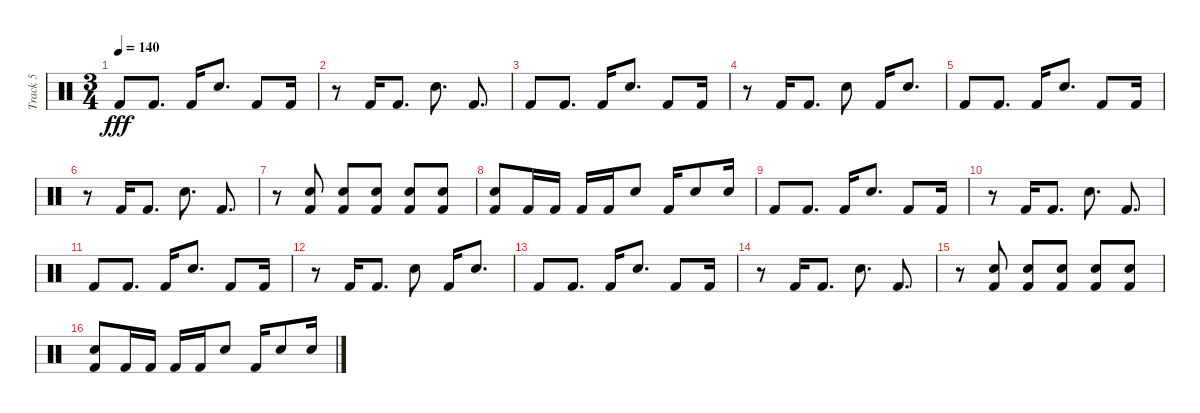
\track ("Track 5" "Track 5") {instrument percussion}
\staff {score}
\articulation defaults
\ts (3 4)
\tempo 140
\clef neutral
\ks c "Kick (hit) 2".8{dy fff} "Kick (hit) 2".8{d} "Kick (hit) 2".16 "Electric Snare (hit)".8{d} "Kick (hit) 2".8 "Kick (hit) 2".16
|
r.8 "Kick (hit) 2".16 "Kick (hit) 2".8{d} "Electric Snare (hit)".8{d} "Kick (hit) 2".8{d} |
"Kick (hit) 2".8 "Kick (hit) 2".8{d} "Kick (hit) 2".16 "Electric Snare (hit)".8{d} "Kick (hit) 2".8 "Kick (hit) 2".16 |
r.8 "Kick (hit) 2".16 "Kick (hit) 2".8{d} "Electric Snare (hit)".8 "Kick (hit) 2".16 "Electric Snare (hit)".8{d} |
"Kick (hit) 2".8 "Kick (hit) 2".8{d} "Kick (hit) 2".16 "Electric Snare (hit)".8{d} "Kick (hit) 2".8 "Kick (hit) 2".16 |
r.8 "Kick (hit) 2".16 "Kick (hit) 2".8{d} "Electric Snare (hit)".8{d} "Kick (hit) 2".8{d} |
r.8 ("Electric Snare (hit)" "Kick (hit) 2").8 ("Electric Snare (hit)" "Kick (hit) 2").8 ("Electric Snare (hit)" "Kick (hit) 2").8 ("Electric Snare (hit)" "Kick (hit) 2").8 ("Electric Snare (hit)" "Kick (hit) 2").8 |
("Electric Snare (hit)" "Kick (hit) 2").8 "Kick (hit) 2".16 "Kick (hit) 2".16 "Kick (hit) 2".16 "Kick (hit) 2".16 "Electric Snare (hit)".8 "Kick (hit) 2".16 "Electric Snare (hit)".8 "Electric Snare (hit)".16 |
"Kick (hit) 2".8 "Kick (hit) 2".8{d} "Kick (hit) 2".16 "Electric Snare (hit)".8{d} "Kick (hit) 2".8 "Kick (hit) 2".16 |
r.8 "Kick (hit) 2".16 "Kick (hit) 2".8{d} "Electric Snare (hit)".8{d} "Kick (hit) 2".8{d} |
"Kick (hit) 2".8 "Kick (hit) 2".8{d} "Kick (hit) 2".16 "Electric Snare (hit)".8{d} "Kick (hit) 2".8 "Kick (hit) 2".16 |
r.8 "Kick (hit) 2".16 "Kick (hit) 2".8{d} "Electric Snare (hit)".8 "Kick (hit) 2".16 "Electric Snare (hit)".8{d} |
"Kick (hit) 2".8 "Kick (hit) 2".8{d} "Kick (hit) 2".16 "Electric Snare (hit)".8{d} "Kick (hit) 2".8 "Kick (hit) 2".16 |
r.8 "Kick (hit) 2".16 "Kick (hit) 2".8{d} "Electric Snare (hit)".8{d} "Kick (hit) 2".8{d} |
r.8 ("Electric Snare (hit)" "Kick (hit) 2").8 ("Electric Snare (hit)" "Kick (hit) 2").8 ("Electric Snare (hit)" "Kick (hit) 2").8 ("Electric Snare (hit)" "Kick (hit) 2").8 ("Electric Snare (hit)" "Kick (hit) 2").8 |
("Electric Snare (hit)" "Kick (hit) 2").8 "Kick (hit) 2".16 "Kick (hit) 2".16 "Kick (hit) 2".16 "Kick (hit) 2".16 "Electric Snare (hit)".8 "Kick (hit) 2".16 "Electric Snare (hit)".8 "Electric Snare (hit)".16
